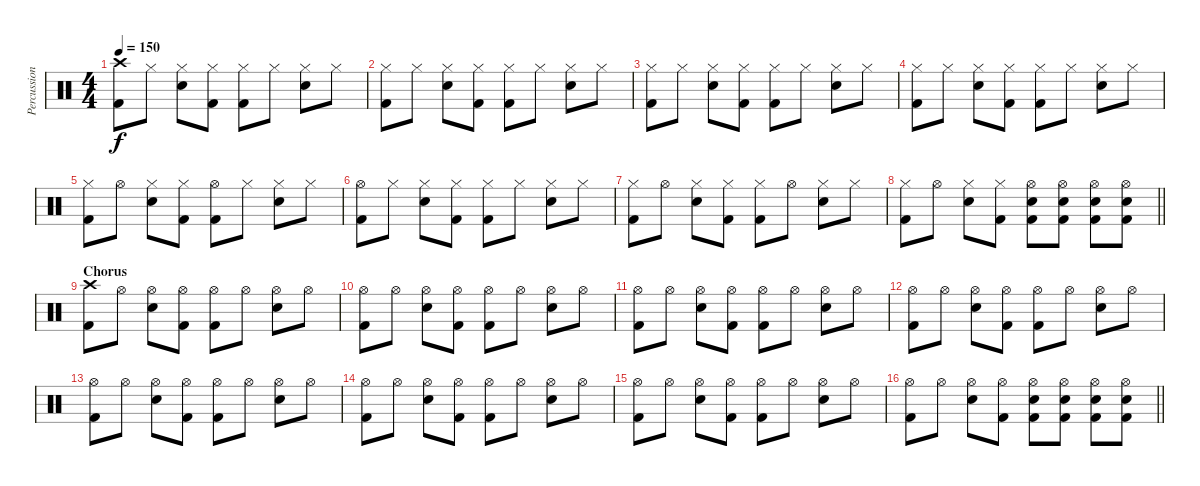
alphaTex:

\track ("Percussion" "Percussion") {instrument percussion}
\staff {score}
\articulation defaults
\ts (4 4)
\tempo 150
\clef neutral
\ks c
("Crash high (hit)" "Kick (hit) 2").8{dy f} "Hi-Hat (closed)".8 ("Hi-Hat (closed)" "Electric Snare (hit)").8 ("Hi-Hat (closed)" "Kick (hit) 2").8 ("Hi-Hat (closed)" "Kick (hit) 2").8 "Hi-Hat (closed)".8 ("Hi-Hat (closed)" "Electric Snare (hit)").8 "Hi-Hat (closed)".8 |
("Hi-Hat (closed)" "Kick (hit) 2").8 "Hi-Hat (closed)".8 ("Hi-Hat (closed)" "Electric Snare (hit)").8 ("Hi-Hat (closed)" "Kick (hit) 2").8 ("Hi-Hat (closed)" "Kick (hit) 2").8 "Hi-Hat (closed)".8 ("Hi-Hat (closed)" "Electric Snare (hit)").8 "Hi-Hat (closed)".8 |
("Hi-Hat (closed)" "Kick (hit) 2").8 "Hi-Hat (closed)".8 ("Hi-Hat (closed)" "Electric Snare (hit)").8 ("Hi-Hat (closed)" "Kick (hit) 2").8 ("Hi-Hat (closed)" "Kick (hit) 2").8 "Hi-Hat (closed)".8 ("Hi-Hat (closed)" "Electric Snare (hit)").8 "Hi-Hat (closed)".8 |
("Hi-Hat (closed)" "Kick (hit) 2").8 "Hi-Hat (closed)".8 ("Hi-Hat (closed)" "Electric Snare (hit)").8 ("Hi-Hat (closed)" "Kick (hit) 2").8 ("Hi-Hat (closed)" "Kick (hit) 2").8 "Hi-Hat (closed)".8 ("Hi-Hat (closed)" "Electric Snare (hit)").8 "Hi-Hat (closed)".8 |
("Hi-Hat (closed)" "Kick (hit) 2").8 "Hi-Hat (open)".8 ("Hi-Hat (closed)" "Electric Snare (hit)").8 ("Hi-Hat (closed)" "Kick (hit) 2").8 ("Hi-Hat (open)" "Kick (hit) 2").8 "Hi-Hat (closed)".8 ("Hi-Hat (closed)" "Electric Snare (hit)").8 "Hi-Hat (closed)".8 |
("Hi-Hat (open)" "Kick (hit) 2").8 "Hi-Hat (closed)".8 ("Hi-Hat (closed)" "Electric Snare (hit)").8 ("Hi-Hat (closed)" "Kick (hit) 2").8 ("Hi-Hat (closed)" "Kick (hit) 2").8 "Hi-Hat (closed)".8 ("Hi-Hat (closed)" "Electric Snare (hit)").8 "Hi-Hat (closed)".8 |
("Hi-Hat (closed)" "Kick (hit) 2").8 "Hi-Hat (open)".8 ("Hi-Hat (closed)" "Electric Snare (hit)").8 ("Hi-Hat (closed)" "Kick (hit) 2").8 ("Hi-Hat (closed)" "Kick (hit) 2").8 "Hi-Hat (open)".8 ("Hi-Hat (closed)" "Electric Snare (hit)").8 "Hi-Hat (closed)".8 |
\barLineRight lightlight
("Hi-Hat (closed)" "Kick (hit) 2").8 "Hi-Hat (open)".8 ("Hi-Hat (closed)" "Electric Snare (hit)").8 ("Hi-Hat (closed)" "Kick (hit) 2").8 ("Hi-Hat (open)" "Electric Snare (hit)" "Kick (hit) 2").8 ("Hi-Hat (open)" "Electric Snare (hit)" "Kick (hit) 2").8 ("Hi-Hat (open)" "Electric Snare (hit)" "Kick (hit) 2").8 ("Hi-Hat (open)" "Electric Snare (hit)" "Kick (hit) 2").8 |
\section ("" "Chorus")
("Crash high (hit)" "Kick (hit) 2").8 "Hi-Hat (open)".8 ("Hi-Hat (open)" "Electric Snare (hit)").8 ("Hi-Hat (open)" "Kick (hit) 2").8 ("Hi-Hat (open)" "Kick (hit) 2").8 "Hi-Hat (open)".8 ("Hi-Hat (open)" "Electric Snare (hit)").8 "Hi-Hat (open)".8 |
("Hi-Hat (open)" "Kick (hit) 2").8 "Hi-Hat (open)".8 ("Hi-Hat (open)" "Electric Snare (hit)").8 ("Hi-Hat (open)" "Kick (hit) 2").8 ("Hi-Hat (open)" "Kick (hit) 2").8 "Hi-Hat (open)".8 ("Hi-Hat (open)" "Electric Snare (hit)").8 "Hi-Hat (open)".8 |
("Hi-Hat (open)" "Kick (hit) 2").8 "Hi-Hat (open)".8 ("Hi-Hat (open)" "Electric Snare (hit)").8 ("Hi-Hat (open)" "Kick (hit) 2").8 ("Hi-Hat (open)" "Kick (hit) 2").8 "Hi-Hat (open)".8 ("Hi-Hat (open)" "Electric Snare (hit)").8 "Hi-Hat (open)".8 |
("Hi-Hat (open)" "Kick (hit) 2").8 "Hi-Hat (open)".8 ("Hi-Hat (open)" "Electric Snare (hit)").8 ("Hi-Hat (open)" "Kick (hit) 2").8 ("Hi-Hat (open)" "Kick (hit) 2").8 "Hi-Hat (open)".8 ("Hi-Hat (open)" "Electric Snare (hit)").8 "Hi-Hat (open)".8 |
("Hi-Hat (open)" "Kick (hit) 2").8 "Hi-Hat (open)".8 ("Hi-Hat (open)" "Electric Snare (hit)").8 ("Hi-Hat (open)" "Kick (hit) 2").8 ("Hi-Hat (open)" "Kick (hit) 2").8 "Hi-Hat (open)".8 ("Hi-Hat (open)" "Electric Snare (hit)").8 "Hi-Hat (open)".8 |
("Hi-Hat (open)" "Kick (hit) 2").8 "Hi-Hat (open)".8 ("Hi-Hat (open)" "Electric Snare (hit)").8 ("Hi-Hat (open)" "Kick (hit) 2").8 ("Hi-Hat (open)" "Kick (hit) 2").8 "Hi-Hat (open)".8 ("Hi-Hat (open)" "Electric Snare (hit)").8 "Hi-Hat (open)".8 |
("Hi-Hat (open)" "Kick (hit) 2").8 "Hi-Hat (open)".8 ("Hi-Hat (open)" "Electric Snare (hit)").8 ("Hi-Hat (open)" "Kick (hit) 2").8 ("Hi-Hat (open)" "Kick (hit) 2").8 "Hi-Hat (open)".8 ("Hi-Hat (open)" "Electric Snare (hit)").8 "Hi-Hat (open)".8 |
\barLineRight lightlight
("Hi-Hat (open)" "Kick (hit) 2").8 "Hi-Hat (open)".8 ("Hi-Hat (open)" "Electric Snare (hit)").8 ("Hi-Hat (open)" "Kick (hit) 2").8 ("Hi-Hat (open)" "Electric Snare (hit)" "Kick (hit) 2").8 ("Hi-Hat (open)" "Electric Snare (hit)" "Kick (hit) 2").8 ("Hi-Hat (open)" "Electric Snare (hit)" "Kick (hit) 2").8 ("Hi-Hat (open)" "Electric Snare (hit)" "Kick (hit) 2").8
